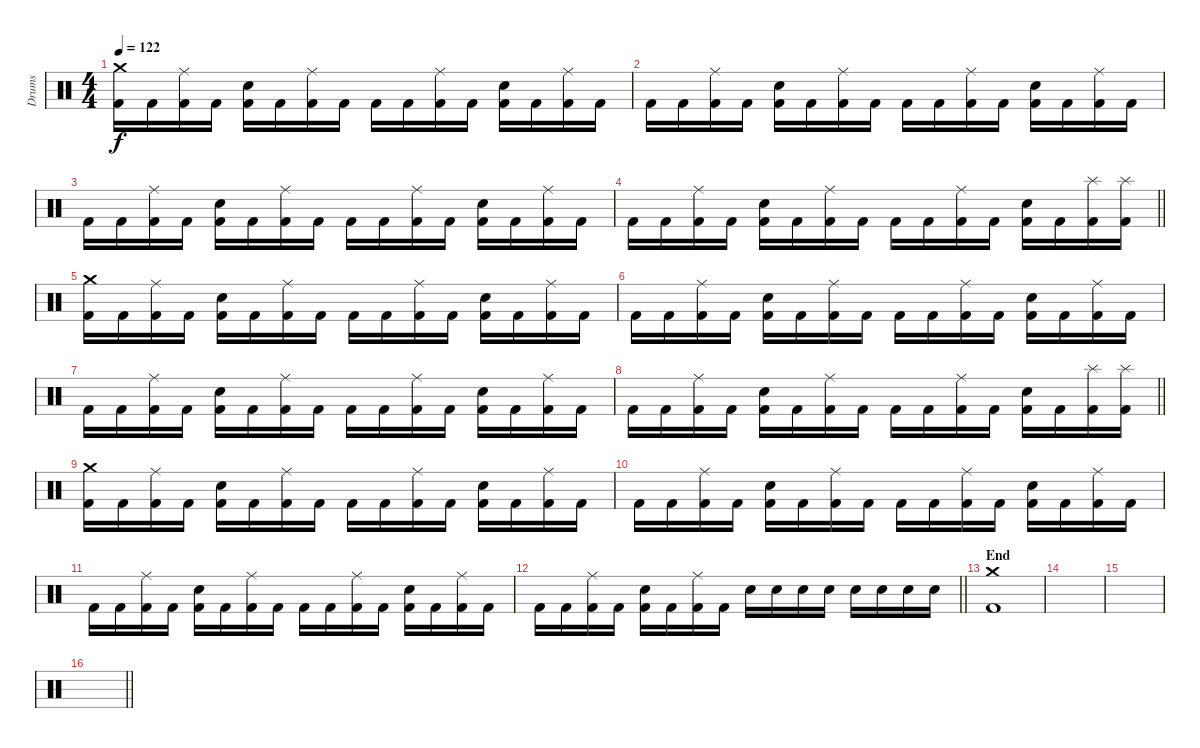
\track ("Drums" "Drums") {instrument percussion}
\staff {score}
\articulation defaults
\ts (4 4)
\section ("" "")
\tempo 122
\clef neutral
\ks c
("Kick (hit) 2" "Crash medium (hit)").16{dy f} "Kick (hit) 2".16 ("Kick (hit) 2" "Ride (middle)").16 "Kick (hit) 2".16 ("Kick (hit) 2" "Snare (hit) 2").16 "Kick (hit) 2".16 ("Kick (hit) 2" "Ride (middle)").16 "Kick (hit) 2".16 "Kick (hit) 2".16 "Kick (hit) 2".16 ("Kick (hit) 2" "Ride (middle)").16 "Kick (hit) 2".16 ("Kick (hit) 2" "Snare (hit) 2").16 "Kick (hit) 2".16 ("Kick (hit) 2" "Ride (middle)").16 "Kick (hit) 2".16 |
"Kick (hit) 2".16 "Kick (hit) 2".16 ("Kick (hit) 2" "Ride (middle)").16 "Kick (hit) 2".16 ("Kick (hit) 2" "Snare (hit) 2").16 "Kick (hit) 2".16 ("Kick (hit) 2" "Ride (middle)").16 "Kick (hit) 2".16 "Kick (hit) 2".16 "Kick (hit) 2".16 ("Kick (hit) 2" "Ride (middle)").16 "Kick (hit) 2".16 ("Kick (hit) 2" "Snare (hit) 2").16 "Kick (hit) 2".16 ("Kick (hit) 2" "Ride (middle)").16 "Kick (hit) 2".16 |
"Kick (hit) 2".16 "Kick (hit) 2".16 ("Kick (hit) 2" "Ride (middle)").16 "Kick (hit) 2".16 ("Kick (hit) 2" "Snare (hit) 2").16 "Kick (hit) 2".16 ("Kick (hit) 2" "Ride (middle)").16 "Kick (hit) 2".16 "Kick (hit) 2".16 "Kick (hit) 2".16 ("Kick (hit) 2" "Ride (middle)").16 "Kick (hit) 2".16 ("Kick (hit) 2" "Snare (hit) 2").16 "Kick (hit) 2".16 ("Kick (hit) 2" "Ride (middle)").16 "Kick (hit) 2".16 |
\barLineRight lightlight "Kick (hit) 2".16 "Kick (hit) 2".16
("Kick (hit) 2" "Ride (middle)").16 "Kick (hit) 2".16 ("Kick (hit) 2" "Snare (hit) 2").16 "Kick (hit) 2".16 ("Kick (hit) 2" "Ride (middle)").16 "Kick (hit) 2".16 "Kick (hit) 2".16 "Kick (hit) 2".16 ("Kick (hit) 2" "Ride (middle)").16 "Kick (hit) 2".16 ("Kick (hit) 2" "Snare (hit) 2").16 "Kick (hit) 2".16 ("Kick (hit) 2" "Splash (hit)").16 ("Kick (hit) 2" "Splash (hit)").16 |
\section ("" "")
("Kick (hit) 2" "Crash medium (hit)").16 "Kick (hit) 2".16 ("Kick (hit) 2" "Ride (middle)").16 "Kick (hit) 2".16 ("Kick (hit) 2" "Snare (hit) 2").16 "Kick (hit) 2".16 ("Kick (hit) 2" "Ride (middle)").16 "Kick (hit) 2".16 "Kick (hit) 2".16 "Kick (hit) 2".16 ("Kick (hit) 2" "Ride (middle)").16 "Kick (hit) 2".16 ("Kick (hit) 2" "Snare (hit) 2").16 "Kick (hit) 2".16 ("Kick (hit) 2" "Ride (middle)").16 "Kick (hit) 2".16 |
"Kick (hit) 2".16 "Kick (hit) 2".16 ("Kick (hit) 2" "Ride (middle)").16 "Kick (hit) 2".16 ("Kick (hit) 2" "Snare (hit) 2").16 "Kick (hit) 2".16 ("Kick (hit) 2" "Ride (middle)").16 "Kick (hit) 2".16 "Kick (hit) 2".16 "Kick (hit) 2".16 ("Kick (hit) 2" "Ride (middle)").16 "Kick (hit) 2".16 ("Kick (hit) 2" "Snare (hit) 2").16 "Kick (hit) 2".16 ("Kick (hit) 2" "Ride (middle)").16 "Kick (hit) 2".16 |
"Kick (hit) 2".16 "Kick (hit) 2".16 ("Kick (hit) 2" "Ride (middle)").16 "Kick (hit) 2".16 ("Kick (hit) 2" "Snare (hit) 2").16 "Kick (hit) 2".16 ("Kick (hit) 2" "Ride (middle)").16 "Kick (hit) 2".16 "Kick (hit) 2".16 "Kick (hit) 2".16 ("Kick (hit) 2" "Ride (middle)").16 "Kick (hit) 2".16 ("Kick (hit) 2" "Snare (hit) 2").16 "Kick (hit) 2".16 ("Kick (hit) 2" "Ride (middle)").16 "Kick (hit) 2".16 |
\barLineRight lightlight "Kick (hit) 2".16 "Kick (hit) 2".16
("Kick (hit) 2" "Ride (middle)").16 "Kick (hit) 2".16 ("Kick (hit) 2" "Snare (hit) 2").16 "Kick (hit) 2".16 ("Kick (hit) 2" "Ride (middle)").16 "Kick (hit) 2".16 "Kick (hit) 2".16 "Kick (hit) 2".16 ("Kick (hit) 2" "Ride (middle)").16 "Kick (hit) 2".16 ("Kick (hit) 2" "Snare (hit) 2").16 "Kick (hit) 2".16 ("Kick (hit) 2" "Splash (hit)").16 ("Kick (hit) 2" "Splash (hit)").16 |
\section ("" "")
("Kick (hit) 2" "Crash medium (hit)").16 "Kick (hit) 2".16 ("Kick (hit) 2" "Ride (middle)").16 "Kick (hit) 2".16 ("Kick (hit) 2" "Snare (hit) 2").16 "Kick (hit) 2".16 ("Kick (hit) 2" "Ride (middle)").16 "Kick (hit) 2".16 "Kick (hit) 2".16 "Kick (hit) 2".16 ("Kick (hit) 2" "Ride (middle)").16 "Kick (hit) 2".16 ("Kick (hit) 2" "Snare (hit) 2").16 "Kick (hit) 2".16 ("Kick (hit) 2" "Ride (middle)").16 "Kick (hit) 2".16 |
"Kick (hit) 2".16 "Kick (hit) 2".16 ("Kick (hit) 2" "Ride (middle)").16 "Kick (hit) 2".16 ("Kick (hit) 2" "Snare (hit) 2").16 "Kick (hit) 2".16 ("Kick (hit) 2" "Ride (middle)").16 "Kick (hit) 2".16 "Kick (hit) 2".16 "Kick (hit) 2".16 ("Kick (hit) 2" "Ride (middle)").16 "Kick (hit) 2".16 ("Kick (hit) 2" "Snare (hit) 2").16 "Kick (hit) 2".16 ("Kick (hit) 2" "Ride (middle)").16 "Kick (hit) 2".16 |
"Kick (hit) 2".16 "Kick (hit) 2".16 ("Kick (hit) 2" "Ride (middle)").16 "Kick (hit) 2".16 ("Kick (hit) 2" "Snare (hit) 2").16 "Kick (hit) 2".16 ("Kick (hit) 2" "Ride (middle)").16 "Kick (hit) 2".16 "Kick (hit) 2".16 "Kick (hit) 2".16 ("Kick (hit) 2" "Ride (middle)").16 "Kick (hit) 2".16 ("Kick (hit) 2" "Snare (hit) 2").16 "Kick (hit) 2".16 ("Kick (hit) 2" "Ride (middle)").16 "Kick (hit) 2".16 |
\barLineRight lightlight "Kick (hit) 2".16 "Kick (hit) 2".16
("Kick (hit) 2" "Ride (middle)").16 "Kick (hit) 2".16 ("Kick (hit) 2" "Snare (hit) 2").16 "Kick (hit) 2".16 ("Kick (hit) 2" "Ride (middle)").16 "Kick (hit) 2".16 "Snare (hit) 2".16 "Snare (hit) 2".16 "Snare (hit) 2".16 "Snare (hit) 2".16 "Snare (hit) 2".16 "Snare (hit) 2".16 "Snare (hit) 2".16 "Snare (hit) 2".16 |
\section ("" "End")
("Kick (hit) 2" "Crash medium (hit)").1 |
|
|
\barLineRight lightlight
